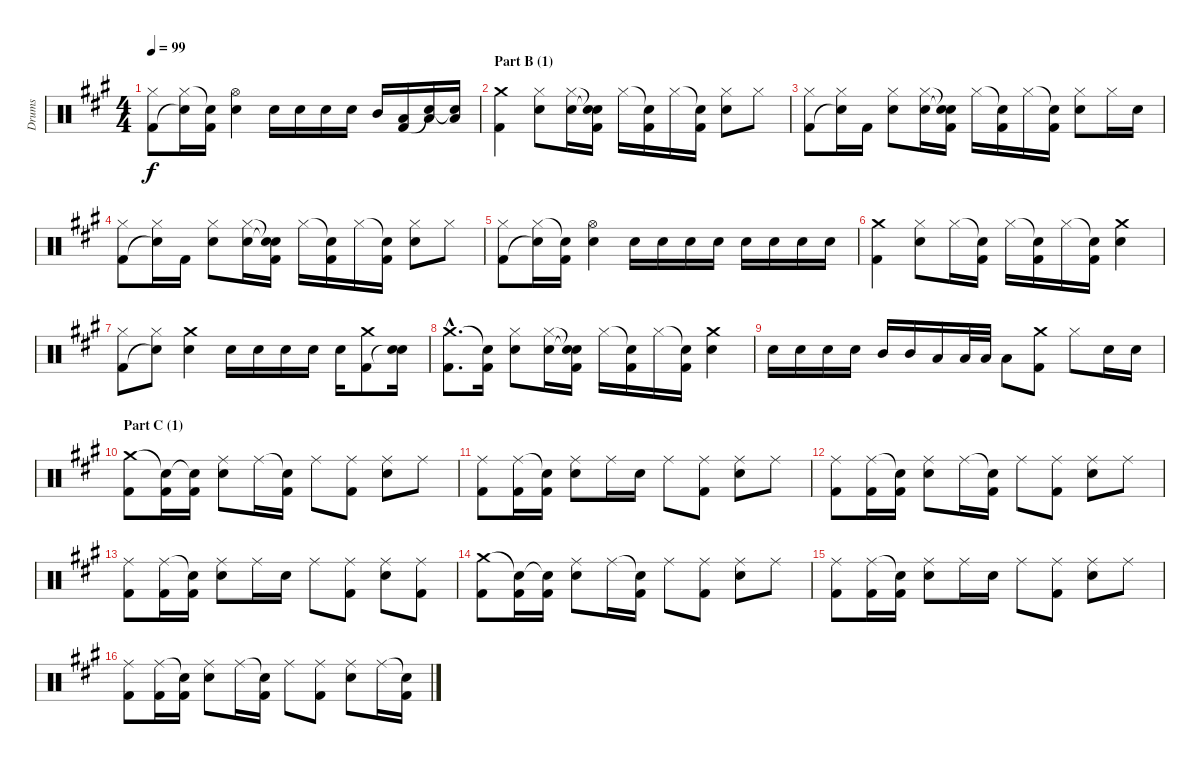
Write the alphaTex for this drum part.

\track ("Drums" "Drums") {instrument percussion}
\staff {score}
\articulation defaults
\ts (4 4)
\tempo 99
\clef neutral
\ks a
("Hi-Hat (closed)" "Kick (hit) 2").8{dy f} ("Hi-Hat (closed)" "Snare (hit)"{t}).16 ("Snare (hit)"{t} "Kick (hit) 2").16 ("Hi-Hat (open)" "Electric Snare (hit)").4 "Electric Snare (hit)".16 "Electric Snare (hit)".16 "Electric Snare (hit)".16 "Electric Snare (hit)".16 "Mid Tom (hit)".16 ("Low Tom (hit)" "Kick (hit) 2").16 ("Low Floor Tom (hit)" "Snare (hit)"{t}).16 ("Low Floor Tom (hit)" "Snare (hit)"{t}).16 |
\section ("" "Part B (1)")
("Crash medium (hit)" "Kick (hit) 2").4 ("Hi-Hat (closed)" "Electric Snare (hit)").8 ("Hi-Hat (closed)" "Electric Snare (hit)").16 ("Snare (hit)"{t} "Snare (hit)"{t} "Kick (hit) 2").16 "Hi-Hat (closed)".16 ("Snare (hit)"{t} "Kick (hit) 2").16 "Hi-Hat (closed)".16 ("Snare (hit)"{t} "Kick (hit) 2").16 ("Hi-Hat (closed)" "Electric Snare (hit)").8 "Hi-Hat (closed)".8 |
("Hi-Hat (closed)" "Kick (hit) 2").8 ("Hi-Hat (closed)" "Snare (hit)"{t}).16 "Kick (hit) 2".16 ("Hi-Hat (closed)" "Electric Snare (hit)").8 ("Hi-Hat (closed)" "Electric Snare (hit)").16 ("Snare (hit)"{t} "Snare (hit)"{t} "Kick (hit) 2").16 "Hi-Hat (closed)".16 ("Snare (hit)"{t} "Kick (hit) 2").16 "Hi-Hat (closed)".16 ("Snare (hit)"{t} "Kick (hit) 2").16 ("Hi-Hat (closed)" "Electric Snare (hit)").8 "Hi-Hat (closed)".16 "Electric Snare (hit)".16 |
("Hi-Hat (closed)" "Kick (hit) 2").8 ("Hi-Hat (closed)" "Snare (hit)"{t}).16 "Kick (hit) 2".16 ("Hi-Hat (closed)" "Electric Snare (hit)").8 ("Hi-Hat (closed)" "Electric Snare (hit)").16 ("Snare (hit)"{t} "Snare (hit)"{t} "Kick (hit) 2").16 "Hi-Hat (closed)".16 ("Snare (hit)"{t} "Kick (hit) 2").16 "Hi-Hat (closed)".16 ("Snare (hit)"{t} "Kick (hit) 2").16 ("Hi-Hat (closed)" "Electric Snare (hit)").8 "Hi-Hat (closed)".8 |
("Hi-Hat (closed)" "Kick (hit) 2").8 ("Hi-Hat (closed)" "Snare (hit)"{t}).16 ("Snare (hit)"{t} "Kick (hit) 2").16 ("Hi-Hat (open)" "Electric Snare (hit)").4 "Electric Snare (hit)".16 "Electric Snare (hit)".16 "Electric Snare (hit)".16 "Electric Snare (hit)".16 "Electric Snare (hit)".16 "Electric Snare (hit)".16 "Electric Snare (hit)".16 "Electric Snare (hit)".16 |
("Crash medium (hit)" "Kick (hit) 2").4 ("Hi-Hat (closed)" "Electric Snare (hit)").8 "Hi-Hat (closed)".16 ("Snare (hit)"{t} "Kick (hit) 2").16 "Hi-Hat (closed)".16 ("Snare (hit)"{t} "Kick (hit) 2").16 "Hi-Hat (closed)".16 ("Snare (hit)"{t} "Kick (hit) 2").16 ("Crash medium (hit)" "Electric Snare (hit)").4 |
("Hi-Hat (closed)" "Kick (hit) 2").8 ("Hi-Hat (closed)" "Snare (hit)"{t}).8 ("Crash medium (hit)" "Electric Snare (hit)").4 "Electric Snare (hit)".16 "Electric Snare (hit)".16 "Electric Snare (hit)".16 "Electric Snare (hit)".16 "Electric Snare (hit)".16 ("Crash medium (hit)" "Kick (hit) 2").8 ("Electric Snare (hit)" "Snare (hit)"{t}).16 |
("Crash medium (hit)"{hac} "Kick (hit) 2"{hac}).8{d} ("Snare (hit)"{t} "Kick (hit) 2").16 ("Hi-Hat (closed)" "Electric Snare (hit)").8 ("Hi-Hat (closed)" "Electric Snare (hit)").16 ("Snare (hit)"{t} "Snare (hit)"{t} "Kick (hit) 2").16 "Hi-Hat (closed)".16 ("Snare (hit)"{t} "Kick (hit) 2").16 "Hi-Hat (closed)".16 ("Snare (hit)"{t} "Kick (hit) 2").16 ("Crash medium (hit)" "Electric Snare (hit)").4 |
"Electric Snare (hit)".16 "Electric Snare (hit)".16 "Electric Snare (hit)".16 "Electric Snare (hit)".16 "Mid Tom (hit)".16 "Mid Tom (hit)".16 "Low Tom (hit)".16 "Low Tom (hit)".32 "Low Floor Tom (hit)".32 "Low Floor Tom (hit)".8 ("Crash medium (hit)" "Kick (hit) 2").8 "Hi-Hat (closed)".8 "Electric Snare (hit)".16 "Electric Snare (hit)".16 |
\section ("" "Part C (1)")
("Crash medium (hit)" "Kick (hit) 2").8 ("Snare (hit)"{t} "Kick (hit) 2").16 ("Snare (hit)"{t} "Kick (hit) 2").16 ("Ride (middle)" "Electric Snare (hit)").8 "Ride (middle)".16 ("Snare (hit)"{t} "Kick (hit) 2").16 "Ride (middle)".8 ("Ride (middle)" "Kick (hit) 2").8 ("Ride (middle)" "Electric Snare (hit)").8 "Ride (middle)".8 |
("Ride (middle)" "Kick (hit) 2").8 ("Ride (middle)" "Kick (hit) 2").16 ("Snare (hit)"{t} "Kick (hit) 2").16 ("Ride (middle)" "Electric Snare (hit)").8 "Ride (middle)".16 "Electric Snare (hit)".16 "Ride (middle)".8 ("Ride (middle)" "Kick (hit) 2").8 ("Ride (middle)" "Electric Snare (hit)").8 "Ride (middle)".8 |
("Ride (middle)" "Kick (hit) 2").8 ("Ride (middle)" "Kick (hit) 2").16 ("Snare (hit)"{t} "Kick (hit) 2").16 ("Ride (middle)" "Electric Snare (hit)").8 "Ride (middle)".16 ("Snare (hit)"{t} "Kick (hit) 2").16 "Ride (middle)".8 ("Ride (middle)" "Kick (hit) 2").8 ("Ride (middle)" "Electric Snare (hit)").8 "Ride (middle)".8 |
("Ride (middle)" "Kick (hit) 2").8 ("Ride (middle)" "Kick (hit) 2").16 ("Snare (hit)"{t} "Kick (hit) 2").16 ("Ride (middle)" "Electric Snare (hit)").8 "Ride (middle)".16 "Electric Snare (hit)".16 "Ride (middle)".8 ("Ride (middle)" "Kick (hit) 2").8 ("Ride (middle)" "Electric Snare (hit)").8 ("Ride (middle)" "Kick (hit) 2").8 |
("Crash medium (hit)" "Kick (hit) 2").8 ("Snare (hit)"{t} "Kick (hit) 2").16 ("Snare (hit)"{t} "Kick (hit) 2").16 ("Ride (middle)" "Electric Snare (hit)").8 "Ride (middle)".16 ("Snare (hit)"{t} "Kick (hit) 2").16 "Ride (middle)".8 ("Ride (middle)" "Kick (hit) 2").8 ("Ride (middle)" "Electric Snare (hit)").8 "Ride (middle)".8 |
("Ride (middle)" "Kick (hit) 2").8 ("Ride (middle)" "Kick (hit) 2").16 ("Snare (hit)"{t} "Kick (hit) 2").16 ("Ride (middle)" "Electric Snare (hit)").8 "Ride (middle)".16 "Electric Snare (hit)".16 "Ride (middle)".8 ("Ride (middle)" "Kick (hit) 2").8 ("Ride (middle)" "Electric Snare (hit)").8 "Ride (middle)".8 |
("Ride (middle)" "Kick (hit) 2").8 ("Ride (middle)" "Kick (hit) 2").16 ("Snare (hit)"{t} "Kick (hit) 2").16 ("Ride (middle)" "Electric Snare (hit)").8 "Ride (middle)".16 ("Snare (hit)"{t} "Kick (hit) 2").16 "Ride (middle)".8 ("Ride (middle)" "Kick (hit) 2").8 ("Ride (middle)" "Electric Snare (hit)").8 "Ride (middle)".16 ("Snare (hit)"{t} "Kick (hit) 2").16
